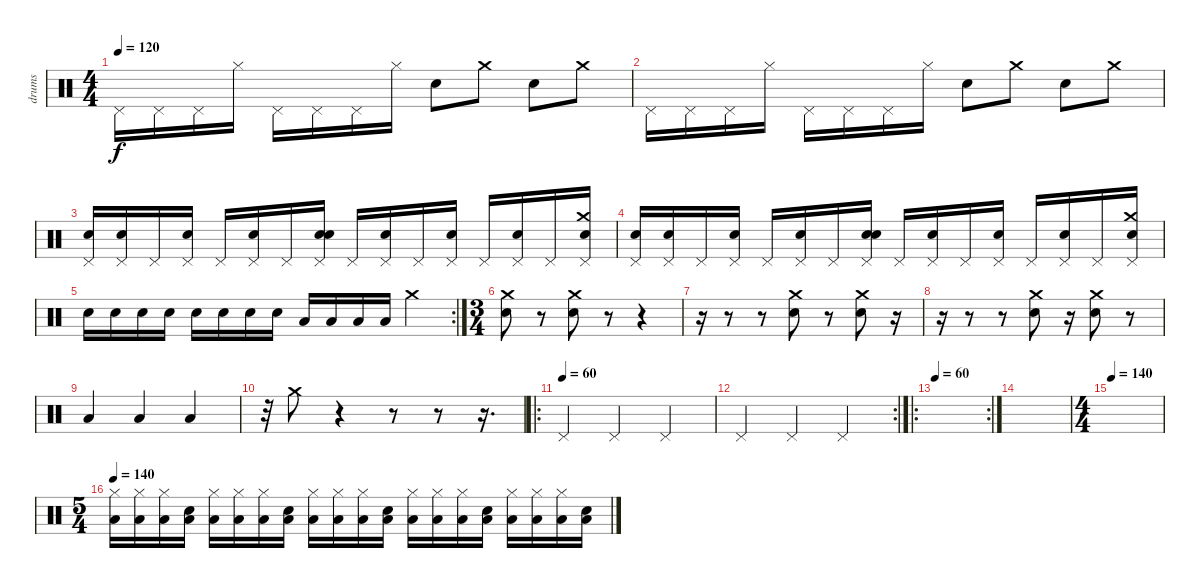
\track ("drums" "drums") {instrument percussion}
\staff {score}
\articulation defaults
\ts (4 4)
\tempo 120
\clef neutral
\ks c "Pedal Hi-Hat (hit)".16{dy f} "Pedal Hi-Hat (hit)".16 "Pedal Hi-Hat (hit)".16 "Hi-Hat (closed)".16 "Pedal Hi-Hat (hit)".16 "Pedal Hi-Hat (hit)".16 "Pedal Hi-Hat (hit)".16 "Hi-Hat (closed)".16 "Snare (hit) 2".8 "Crash medium (hit)".8 "Electric Snare (hit)".8 "Crash medium (hit)".8
|
"Pedal Hi-Hat (hit)".16 "Pedal Hi-Hat (hit)".16 "Pedal Hi-Hat (hit)".16 "Hi-Hat (closed)".16 "Pedal Hi-Hat (hit)".16 "Pedal Hi-Hat (hit)".16 "Pedal Hi-Hat (hit)".16 "Hi-Hat (closed)".16 "Snare (hit) 2".8 "Crash medium (hit)".8 "Electric Snare (hit)".8 "Crash medium (hit)".8 |
("Snare (hit) 2" "Pedal Hi-Hat (hit)").16 ("Snare (hit) 2" "Pedal Hi-Hat (hit)").16 "Pedal Hi-Hat (hit)".16 ("Snare (hit) 2" "Pedal Hi-Hat (hit)").16 "Pedal Hi-Hat (hit)".16 ("Snare (hit) 2" "Pedal Hi-Hat (hit)").16 "Pedal Hi-Hat (hit)".16 ("Electric Snare (hit)" "Snare (hit) 2" "Pedal Hi-Hat (hit)").16 "Pedal Hi-Hat (hit)".16 ("Snare (hit) 2" "Pedal Hi-Hat (hit)").16 "Pedal Hi-Hat (hit)".16 ("Snare (hit) 2" "Pedal Hi-Hat (hit)").16 "Pedal Hi-Hat (hit)".16 ("Snare (hit) 2" "Pedal Hi-Hat (hit)").16 "Pedal Hi-Hat (hit)".16 ("Electric Snare (hit)" "Crash medium (hit)" "Pedal Hi-Hat (hit)").16 |
("Snare (hit) 2" "Pedal Hi-Hat (hit)").16 ("Snare (hit) 2" "Pedal Hi-Hat (hit)").16 "Pedal Hi-Hat (hit)".16 ("Snare (hit) 2" "Pedal Hi-Hat (hit)").16 "Pedal Hi-Hat (hit)".16 ("Snare (hit) 2" "Pedal Hi-Hat (hit)").16 "Pedal Hi-Hat (hit)".16 ("Electric Snare (hit)" "Snare (hit) 2" "Pedal Hi-Hat (hit)").16 "Pedal Hi-Hat (hit)".16 ("Snare (hit) 2" "Pedal Hi-Hat (hit)").16 "Pedal Hi-Hat (hit)".16 ("Snare (hit) 2" "Pedal Hi-Hat (hit)").16 "Pedal Hi-Hat (hit)".16 ("Snare (hit) 2" "Pedal Hi-Hat (hit)").16 "Pedal Hi-Hat (hit)".16 ("Electric Snare (hit)" "Crash medium (hit)" "Pedal Hi-Hat (hit)").16 |
\rc 2 "Snare (hit) 2".16 "Snare (hit) 2".16 "Snare (hit) 2".16 "Snare (hit) 2".16 "Electric Snare (hit)".16 "Electric Snare (hit)".16 "Electric Snare (hit)".16 "Electric Snare (hit)".16 "Low Tom (hit)".16 "Low Tom (hit)".16 "Low Tom (hit)".16 "Low Tom (hit)".16 "Crash medium (hit)".4
|
\ts (3 4)
("Crash medium (hit)" "Snare (hit) 2").8 r.8 ("Crash medium (hit)" "Snare (hit) 2").8 r.8 r.4 |
r.16 r.8 r.8 ("Snare (hit) 2" "Crash medium (hit)").8 r.8 ("Crash medium (hit)" "Snare (hit) 2").8 r.16 |
r.16 r.8 r.8 ("Crash medium (hit)" "Snare (hit) 2").8 r.16 ("Crash medium (hit)" "Snare (hit) 2").8 r.8 |
"Low Floor Tom (hit)".4 "Low Floor Tom (hit)".4 "Low Floor Tom (hit)".4 |
r.32 "Crash medium (hit)".8 r.4 r.8 r.8 r.16{d} |
\ro
\tempo (60)
"Pedal Hi-Hat (hit)".4 "Pedal Hi-Hat (hit)".4 "Pedal Hi-Hat (hit)".4 |
\rc 2 "Pedal Hi-Hat (hit)".4 "Pedal Hi-Hat (hit)".4 "Pedal Hi-Hat (hit)".4
|
\ro
\rc 2
\tempo 60
|
|
\ts (4 4)
\tempo 140
|
\ts (5 4)
\tempo 140
("Low Tom (hit)" "Hi-Hat (closed)").16 ("Low Tom (hit)" "Hi-Hat (closed)").16 ("Low Tom (hit)" "Hi-Hat (closed)").16 ("Low Tom (hit)" "Snare (hit) 2").16 ("Low Tom (hit)" "Hi-Hat (closed)").16 ("Low Tom (hit)" "Hi-Hat (closed)").16 ("Low Tom (hit)" "Hi-Hat (closed)").16 ("Low Tom (hit)" "Electric Snare (hit)").16 ("Low Tom (hit)" "Hi-Hat (closed)").16 ("Low Tom (hit)" "Hi-Hat (closed)").16 ("Low Tom (hit)" "Hi-Hat (closed)").16 ("Low Tom (hit)" "Snare (hit) 2").16 ("Low Tom (hit)" "Hi-Hat (closed)").16 ("Low Tom (hit)" "Hi-Hat (closed)").16 ("Low Tom (hit)" "Hi-Hat (closed)").16 ("Low Tom (hit)" "Snare (hit) 2").16 ("Low Tom (hit)" "Hi-Hat (closed)").16 ("Low Tom (hit)" "Hi-Hat (closed)").16 ("Low Tom (hit)" "Hi-Hat (closed)").16 ("Low Tom (hit)" "Electric Snare (hit)").16
